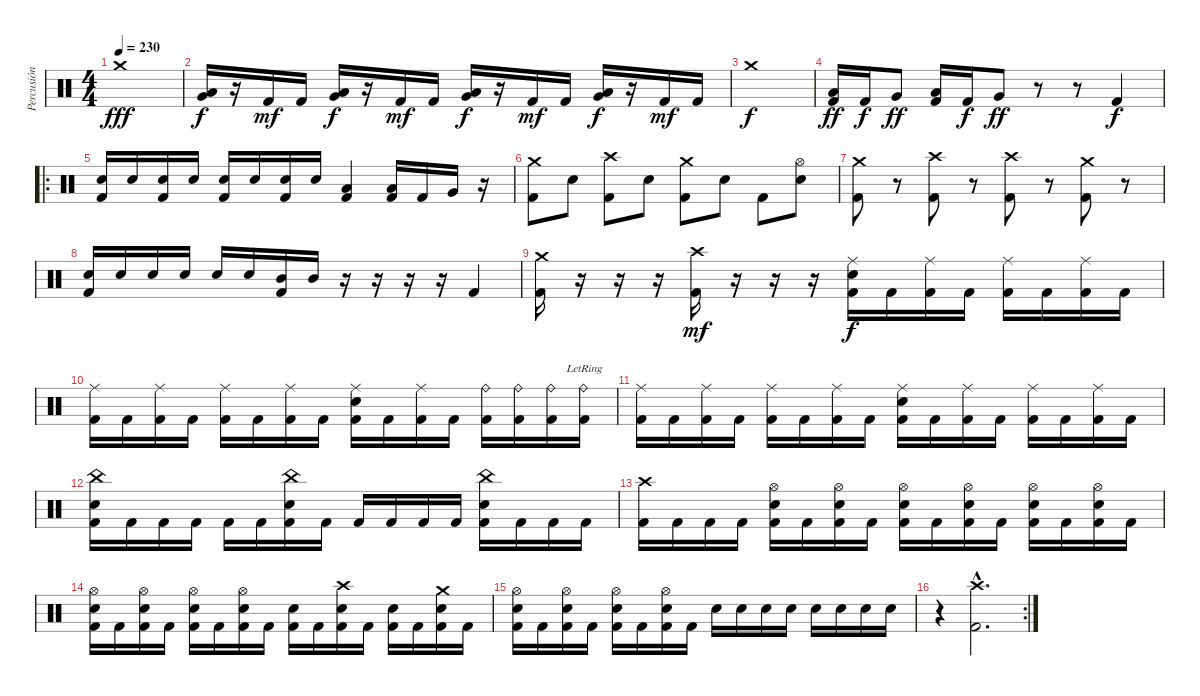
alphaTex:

\track ("Percusión" "Percusión") {instrument percussion}
\staff {score}
\articulation defaults
\ts (4 4)
\tempo 230
\clef neutral
\ks c "Crash medium (hit)".1{dy fff}
|
("Low Tom (hit)" "Very Low Tom (hit)").16{dy f} r.16 "Kick (hit) 2".16{dy mf} "Kick (hit) 2".16 ("Low Tom (hit)" "Very Low Tom (hit)").16{dy f} r.16 "Kick (hit) 2".16{dy mf} "Kick (hit) 2".16 ("Very Low Tom (hit)" "Low Floor Tom (hit)").16{dy f} r.16 "Kick (hit) 2".16{dy mf} "Kick (hit) 2".16 ("Very Low Tom (hit)" "Low Floor Tom (hit)").16{dy f} r.16 "Kick (hit) 2".16{dy mf} "Kick (hit) 2".16 |
"Crash medium (hit)".1{dy f} |
("Kick (hit) 2" "Low Floor Tom (hit)").16{dy ff} "Kick (hit) 2".16{dy f} "Very Low Tom (hit)".8{dy ff} ("Kick (hit) 2" "Low Floor Tom (hit)").16 "Kick (hit) 2".16{dy f} "Very Low Tom (hit)".8{dy ff} r.8 r.8 "Kick (hit) 2".4{dy f} |
\ro
("Kick (hit) 2" "Snare (hit) 2").16 "Snare (hit) 2".16 ("Kick (hit) 2" "Snare (hit) 2").16 "Snare (hit) 2".16 ("Kick (hit) 2" "Snare (hit) 2").16 "Snare (hit) 2".16 ("Kick (hit) 2" "Snare (hit) 2").16 "Snare (hit) 2".16 ("Kick (hit) 2" "Low Tom (hit)").4 ("Kick (hit) 2" "Low Tom (hit)").16 "Kick (hit) 2".16 "Very Low Tom (hit)".16 r.16 |
("Crash medium (hit)" "Kick (hit) 2").8 "Snare (hit) 2".8 ("Crash high (hit)" "Kick (hit) 2").8 "Snare (hit) 2".8 ("Crash medium (hit)" "Kick (hit) 2").8 "Snare (hit) 2".8 "Kick (hit) 2".8 ("Hi-Hat (open)" "Snare (hit) 2").8 |
("Crash medium (hit)" "Kick (hit) 2").8 r.8 ("Crash high (hit)" "Kick (hit) 2").8 r.8 ("Crash high (hit)" "Kick (hit) 2").8 r.8 ("Crash medium (hit)" "Kick (hit) 2").8 r.8 |
("Kick (hit) 2" "Snare (hit) 2").16 "Snare (hit) 2".16 "Snare (hit) 2".16 "Snare (hit) 2".16 "Snare (hit) 2".16 "Snare (hit) 2".16 ("Kick (hit) 2" "Mid Tom (hit)").16 "Mid Tom (hit)".16 r.16 r.16 r.16 r.16 "Kick (hit) 2".4 |
("Crash medium (hit)" "Kick (hit) 2").16 r.16 r.16 r.16 ("Crash high (hit)" "Kick (hit) 2").16{dy mf} r.16 r.16 r.16 ("Ride (middle)" "Kick (hit) 2" "Snare (hit) 2").16{dy f} "Kick (hit) 2".16 ("Ride (middle)" "Kick (hit) 2").16 "Kick (hit) 2".16 ("Ride (middle)" "Kick (hit) 2").16 "Kick (hit) 2".16 ("Ride (middle)" "Kick (hit) 2").16 "Kick (hit) 2".16 |
("Ride (middle)" "Kick (hit) 2").16 "Kick (hit) 2".16 ("Ride (middle)" "Kick (hit) 2").16 "Kick (hit) 2".16 ("Ride (middle)" "Kick (hit) 2").16 "Kick (hit) 2".16 ("Ride (middle)" "Kick (hit) 2").16 "Kick (hit) 2".16 ("Ride (middle)" "Kick (hit) 2" "Snare (hit) 2").16 "Kick (hit) 2".16 ("Ride (middle)" "Kick (hit) 2").16 "Kick (hit) 2".16 ("Ride (bell)" "Kick (hit) 2").16 ("Ride (bell)" "Kick (hit) 2").16 ("Ride (bell)" "Kick (hit) 2").16 ("Ride (bell)"{lr} "Kick (hit) 2").16 |
("Ride (middle)" "Kick (hit) 2").16 "Kick (hit) 2".16 ("Ride (middle)" "Kick (hit) 2").16 "Kick (hit) 2".16 ("Ride (middle)" "Kick (hit) 2").16 "Kick (hit) 2".16 ("Ride (middle)" "Kick (hit) 2").16 "Kick (hit) 2".16 ("Ride (middle)" "Kick (hit) 2" "Snare (hit) 2").16 "Kick (hit) 2".16 ("Ride (middle)" "Kick (hit) 2").16 "Kick (hit) 2".16 ("Ride (middle)" "Kick (hit) 2").16 "Kick (hit) 2".16 ("Ride (middle)" "Kick (hit) 2").16 "Kick (hit) 2".16 |
("China (hit)" "Kick (hit) 2" "Snare (hit) 2").16 "Kick (hit) 2".16 "Kick (hit) 2".16 "Kick (hit) 2".16 "Kick (hit) 2".16 "Kick (hit) 2".16 ("China (hit)" "Kick (hit) 2" "Snare (hit) 2").16 "Kick (hit) 2".16 "Kick (hit) 2".16 "Kick (hit) 2".16 "Kick (hit) 2".16 "Kick (hit) 2".16 ("China (hit)" "Kick (hit) 2" "Snare (hit) 2").16 "Kick (hit) 2".16 "Kick (hit) 2".16 "Kick (hit) 2".16 |
("Crash high (hit)" "Kick (hit) 2").16 "Kick (hit) 2".16 "Kick (hit) 2".16 "Kick (hit) 2".16 ("Hi-Hat (open)" "Kick (hit) 2" "Snare (hit) 2").16 "Kick (hit) 2".16 ("Hi-Hat (open)" "Kick (hit) 2" "Snare (hit) 2").16 "Kick (hit) 2".16 ("Hi-Hat (open)" "Kick (hit) 2" "Snare (hit) 2").16 "Kick (hit) 2".16 ("Hi-Hat (open)" "Kick (hit) 2" "Snare (hit) 2").16 "Kick (hit) 2".16 ("Hi-Hat (open)" "Kick (hit) 2" "Snare (hit) 2").16 "Kick (hit) 2".16 ("Hi-Hat (open)" "Kick (hit) 2" "Snare (hit) 2").16 "Kick (hit) 2".16 |
("Hi-Hat (open)" "Kick (hit) 2" "Snare (hit) 2").16 "Kick (hit) 2".16 ("Hi-Hat (open)" "Kick (hit) 2" "Snare (hit) 2").16 "Kick (hit) 2".16 ("Hi-Hat (open)" "Kick (hit) 2" "Snare (hit) 2").16 "Kick (hit) 2".16 ("Hi-Hat (open)" "Kick (hit) 2" "Snare (hit) 2").16 "Kick (hit) 2".16 ("Kick (hit) 2" "Snare (hit) 2").16 "Kick (hit) 2".16 ("Crash high (hit)" "Kick (hit) 2" "Snare (hit) 2").16 "Kick (hit) 2".16 ("Kick (hit) 2" "Snare (hit) 2").16 "Kick (hit) 2".16 ("Crash medium (hit)" "Kick (hit) 2" "Snare (hit) 2").16 "Kick (hit) 2".16 |
("Hi-Hat (open)" "Kick (hit) 2" "Snare (hit) 2").16 "Kick (hit) 2".16 ("Hi-Hat (open)" "Kick (hit) 2" "Snare (hit) 2").16 "Kick (hit) 2".16 ("Hi-Hat (open)" "Kick (hit) 2" "Snare (hit) 2").16 "Kick (hit) 2".16 ("Hi-Hat (open)" "Kick (hit) 2" "Snare (hit) 2").16 "Kick (hit) 2".16 "Snare (hit) 2".16 "Snare (hit) 2".16 "Snare (hit) 2".16 "Snare (hit) 2".16 "Snare (hit) 2".16 "Snare (hit) 2".16 "Snare (hit) 2".16 "Snare (hit) 2".16 |
\rc 2
r.4 ("Kick (hit) 2"{hac} "Crash high (hit)"{hac}).2{d}
